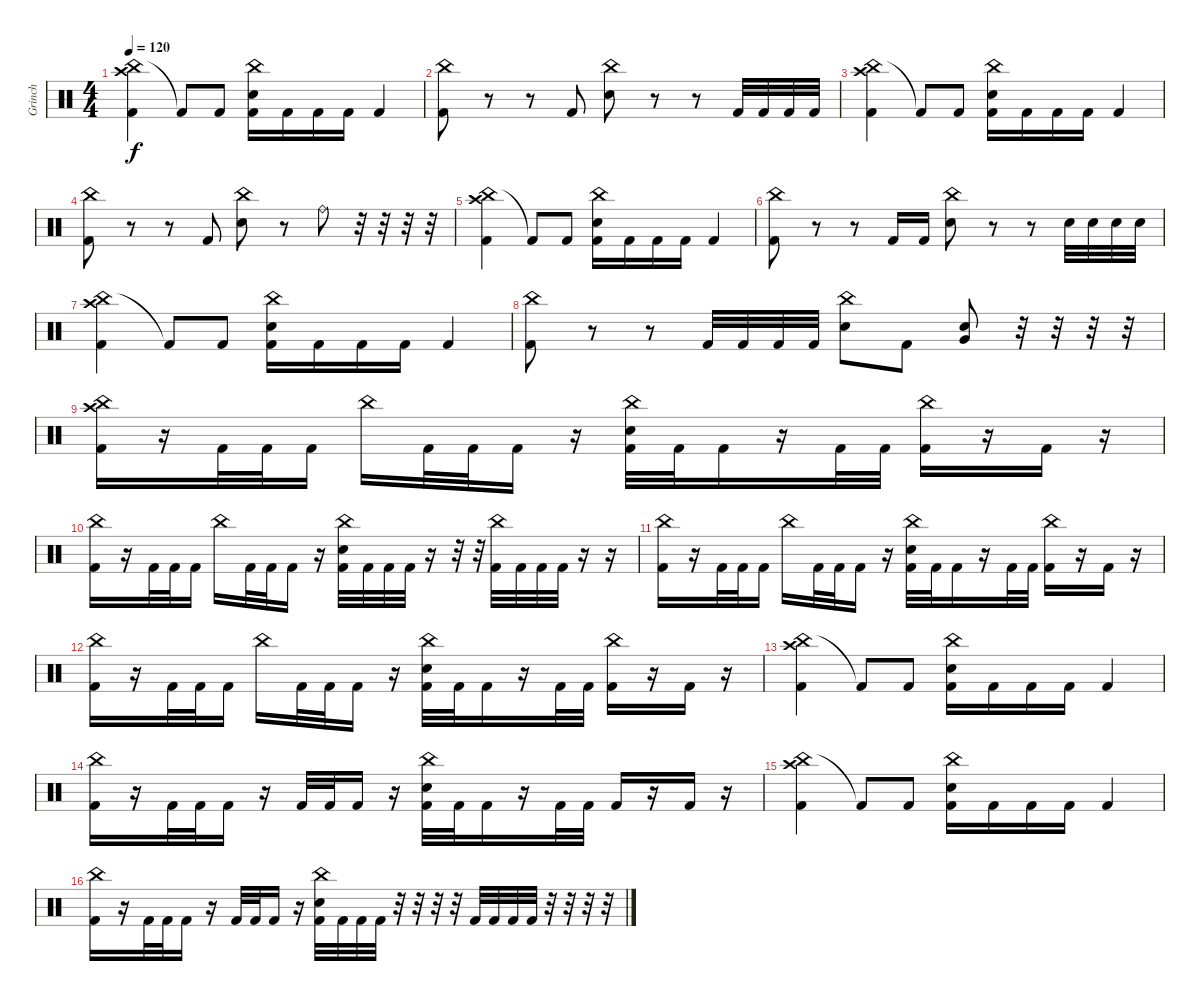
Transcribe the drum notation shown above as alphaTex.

\track ("Grinch" "Grinch") {instrument percussion}
\staff {score}
\articulation defaults
\ts (4 4)
\tempo 120
\clef neutral
\ks c
("China (hit)" "Crash high (hit)" "Kick (hit) 2").4{dy f} "Kick (hit) 2"{t}.8 "Kick (hit) 2".8 ("China (hit)" "Snare (hit) 2" "Kick (hit) 2").16 "Kick (hit) 2".16 "Kick (hit) 2".16 "Kick (hit) 2".16 "Kick (hit) 2".4 |
("China (hit)" "Kick (hit) 2").8 r.8 r.8 "Kick (hit) 2".8 ("China (hit)" "Snare (hit) 2").8 r.8 r.8 "Kick (hit) 2".32 "Kick (hit) 2".32 "Kick (hit) 2".32 "Kick (hit) 2".32 |
("China (hit)" "Crash high (hit)" "Kick (hit) 2").4 "Kick (hit) 2"{t}.8 "Kick (hit) 2".8 ("China (hit)" "Snare (hit) 2" "Kick (hit) 2").16 "Kick (hit) 2".16 "Kick (hit) 2".16 "Kick (hit) 2".16 "Kick (hit) 2".4 |
("China (hit)" "Kick (hit) 2").8 r.8 r.8 "Kick (hit) 2".8 ("China (hit)" "Snare (hit) 2").8 r.8 "Ride (bell)".8 r.32 r.32 r.32 r.32 |
("China (hit)" "Crash high (hit)" "Kick (hit) 2").4 "Kick (hit) 2"{t}.8 "Kick (hit) 2".8 ("China (hit)" "Snare (hit) 2" "Kick (hit) 2").16 "Kick (hit) 2".16 "Kick (hit) 2".16 "Kick (hit) 2".16 "Kick (hit) 2".4 |
("China (hit)" "Kick (hit) 2").8 r.8 r.8 "Kick (hit) 2".16 "Kick (hit) 2".16 ("China (hit)" "Snare (hit) 2").8 r.8 r.8 "Snare (hit) 2".32 "Snare (hit) 2".32 "Snare (hit) 2".32 "Snare (hit) 2".32 |
("China (hit)" "Crash high (hit)" "Kick (hit) 2").4 "Kick (hit) 2"{t}.8 "Kick (hit) 2".8 ("China (hit)" "Snare (hit) 2" "Kick (hit) 2").16 "Kick (hit) 2".16 "Kick (hit) 2".16 "Kick (hit) 2".16 "Kick (hit) 2".4 |
("China (hit)" "Kick (hit) 2").8 r.8 r.8 "Kick (hit) 2".32 "Kick (hit) 2".32 "Kick (hit) 2".32 "Kick (hit) 2".32 ("China (hit)" "Snare (hit) 2").8 "Kick (hit) 2".8 ("Very Low Tom (hit)" "Snare (hit) 2").8 r.32 r.32 r.32 r.32 |
("China (hit)" "Crash high (hit)" "Kick (hit) 2").16 r.16 "Kick (hit) 2".32 "Kick (hit) 2".32 "Kick (hit) 2".16 "China (hit)".16 "Kick (hit) 2".32 "Kick (hit) 2".32 "Kick (hit) 2".16 r.16 ("China (hit)" "Snare (hit) 2" "Kick (hit) 2").32 "Kick (hit) 2".32 "Kick (hit) 2".16 r.16 "Kick (hit) 2".32 "Kick (hit) 2".32 ("China (hit)" "Kick (hit) 2").16 r.16 "Kick (hit) 2".16 r.16 |
("China (hit)" "Kick (hit) 2").16 r.16 "Kick (hit) 2".32 "Kick (hit) 2".32 "Kick (hit) 2".16 "China (hit)".16 "Kick (hit) 2".32 "Kick (hit) 2".32 "Kick (hit) 2".16 r.16 ("China (hit)" "Snare (hit) 2" "Kick (hit) 2").32 "Kick (hit) 2".32 "Kick (hit) 2".32 "Kick (hit) 2".32 r.16 r.32 r.32 ("China (hit)" "Kick (hit) 2").32 "Kick (hit) 2".32 "Kick (hit) 2".32 "Kick (hit) 2".32 r.16 r.16 |
("China (hit)" "Kick (hit) 2").16 r.16 "Kick (hit) 2".32 "Kick (hit) 2".32 "Kick (hit) 2".16 "China (hit)".16 "Kick (hit) 2".32 "Kick (hit) 2".32 "Kick (hit) 2".16 r.16 ("China (hit)" "Snare (hit) 2" "Kick (hit) 2").32 "Kick (hit) 2".32 "Kick (hit) 2".16 r.16 "Kick (hit) 2".32 "Kick (hit) 2".32 ("China (hit)" "Kick (hit) 2").16 r.16 "Kick (hit) 2".16 r.16 |
("China (hit)" "Kick (hit) 2").16 r.16 "Kick (hit) 2".32 "Kick (hit) 2".32 "Kick (hit) 2".16 "China (hit)".16 "Kick (hit) 2".32 "Kick (hit) 2".32 "Kick (hit) 2".16 r.16 ("China (hit)" "Snare (hit) 2" "Kick (hit) 2").32 "Kick (hit) 2".32 "Kick (hit) 2".16 r.16 "Kick (hit) 2".32 "Kick (hit) 2".32 ("China (hit)" "Kick (hit) 2").16 r.16 "Kick (hit) 2".16 r.16 |
("China (hit)" "Crash high (hit)" "Kick (hit) 2").4 "Kick (hit) 2"{t}.8 "Kick (hit) 2".8 ("China (hit)" "Snare (hit) 2" "Kick (hit) 2").16 "Kick (hit) 2".16 "Kick (hit) 2".16 "Kick (hit) 2".16 "Kick (hit) 2".4 |
("China (hit)" "Kick (hit) 2").16 r.16 "Kick (hit) 2".32 "Kick (hit) 2".32 "Kick (hit) 2".16 r.16 "Kick (hit) 2".32 "Kick (hit) 2".32 "Kick (hit) 2".16 r.16 ("China (hit)" "Snare (hit) 2" "Kick (hit) 2").32 "Kick (hit) 2".32 "Kick (hit) 2".16 r.16 "Kick (hit) 2".32 "Kick (hit) 2".32 "Kick (hit) 2".16 r.16 "Kick (hit) 2".16 r.16 |
("China (hit)" "Crash high (hit)" "Kick (hit) 2").4 "Kick (hit) 2"{t}.8 "Kick (hit) 2".8 ("China (hit)" "Snare (hit) 2" "Kick (hit) 2").16 "Kick (hit) 2".16 "Kick (hit) 2".16 "Kick (hit) 2".16 "Kick (hit) 2".4 |
("China (hit)" "Kick (hit) 2").16 r.16 "Kick (hit) 2".32 "Kick (hit) 2".32 "Kick (hit) 2".16 r.16 "Kick (hit) 2".32 "Kick (hit) 2".32 "Kick (hit) 2".16 r.16 ("China (hit)" "Snare (hit) 2" "Kick (hit) 2").32 "Kick (hit) 2".32 "Kick (hit) 2".32 "Kick (hit) 2".32 r.32 r.32 r.32 r.32 "Kick (hit) 2".32 "Kick (hit) 2".32 "Kick (hit) 2".32 "Kick (hit) 2".32 r.32 r.32 r.32 r.32
